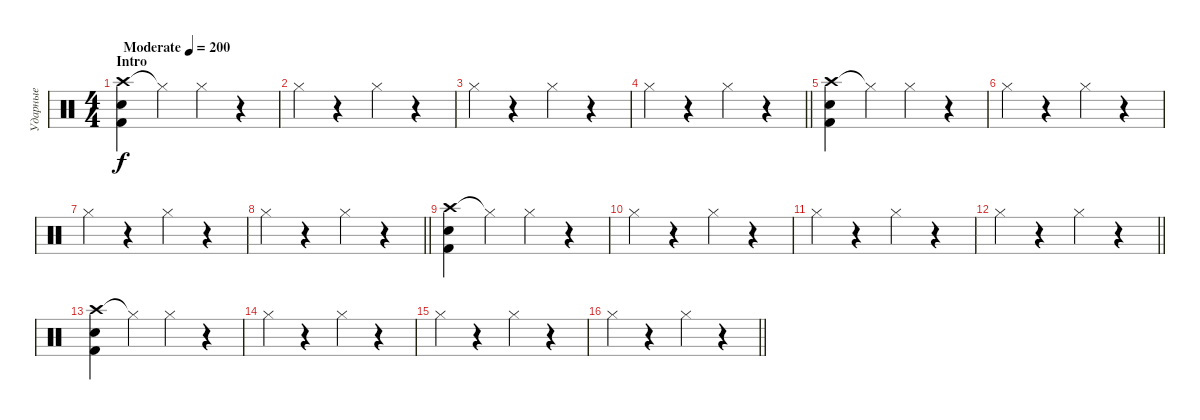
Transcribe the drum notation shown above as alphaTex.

\track ("Ударные" "Ударные") {instrument percussion}
\staff {score}
\articulation defaults
\ts (4 4)
\section ("" "Intro")
\tempo (200 "Moderate")
\clef neutral
\ks c
("Crash high (hit)" "Snare (hit) 2" "Kick (hit) 2").4{dy f} "Hi-Hat (closed)"{t}.4 "Hi-Hat (closed)".4 r.4 |
"Hi-Hat (closed)".4 r.4 "Hi-Hat (closed)".4 r.4 |
"Hi-Hat (closed)".4 r.4 "Hi-Hat (closed)".4 r.4 |
\barLineRight lightlight "Hi-Hat (closed)".4
r.4 "Hi-Hat (closed)".4 r.4 |
("Crash high (hit)" "Snare (hit) 2" "Kick (hit) 2").4 "Hi-Hat (closed)"{t}.4 "Hi-Hat (closed)".4 r.4 |
"Hi-Hat (closed)".4 r.4 "Hi-Hat (closed)".4 r.4 |
"Hi-Hat (closed)".4 r.4 "Hi-Hat (closed)".4 r.4 |
\barLineRight lightlight "Hi-Hat (closed)".4
r.4 "Hi-Hat (closed)".4 r.4 |
("Crash high (hit)" "Snare (hit) 2" "Kick (hit) 2").4 "Hi-Hat (closed)"{t}.4 "Hi-Hat (closed)".4 r.4 |
"Hi-Hat (closed)".4 r.4 "Hi-Hat (closed)".4 r.4 |
"Hi-Hat (closed)".4 r.4 "Hi-Hat (closed)".4 r.4 |
\barLineRight lightlight "Hi-Hat (closed)".4
r.4 "Hi-Hat (closed)".4 r.4 |
("Crash high (hit)" "Snare (hit) 2" "Kick (hit) 2").4 "Hi-Hat (closed)"{t}.4 "Hi-Hat (closed)".4 r.4 |
"Hi-Hat (closed)".4 r.4 "Hi-Hat (closed)".4 r.4 |
"Hi-Hat (closed)".4 r.4 "Hi-Hat (closed)".4 r.4 |
\barLineRight lightlight "Hi-Hat (closed)".4
r.4 "Hi-Hat (closed)".4 r.4
